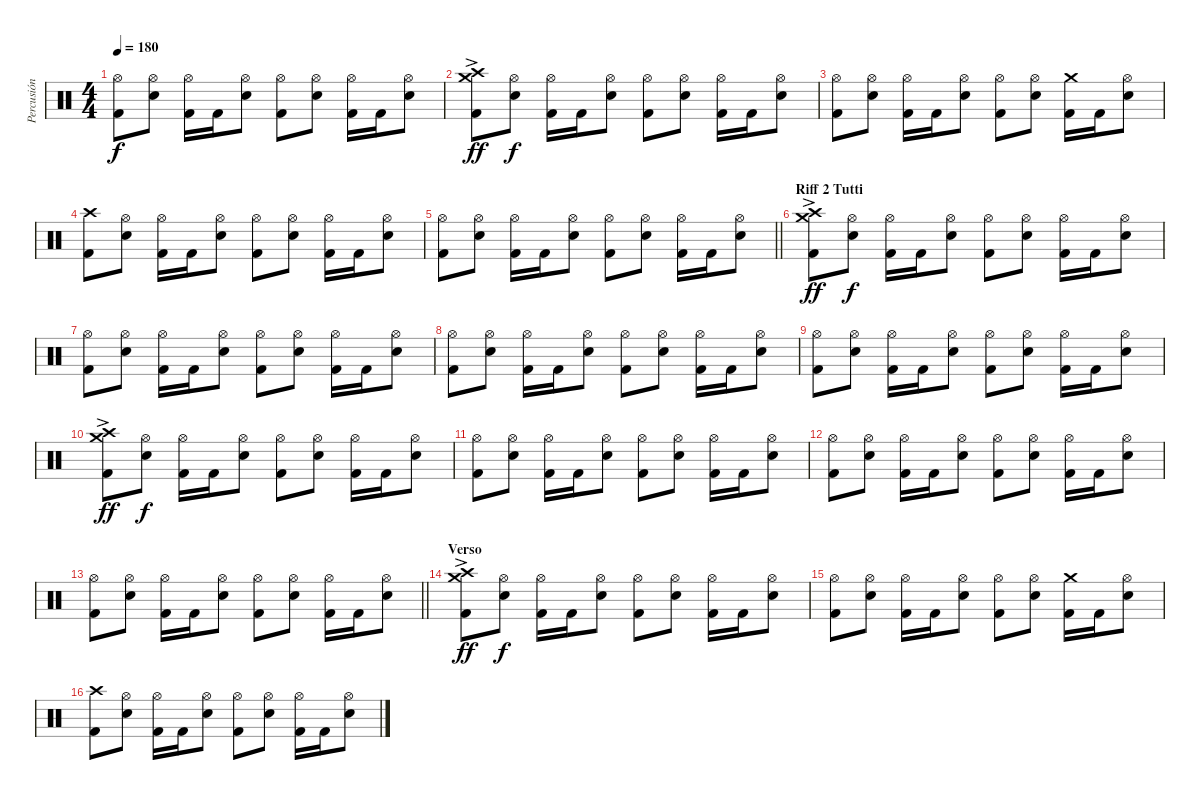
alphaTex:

\track ("Percusión" "Percusión") {instrument percussion}
\staff {score}
\articulation defaults
\ts (4 4)
\tempo 180
\clef neutral
\ks c
("Hi-Hat (open)" "Kick (hit) 2").8{dy f} ("Hi-Hat (open)" "Snare (hit) 2").8 ("Hi-Hat (open)" "Kick (hit) 2").16 "Kick (hit) 2".16 ("Hi-Hat (open)" "Snare (hit) 2").8 ("Hi-Hat (open)" "Kick (hit) 2").8 ("Hi-Hat (open)" "Snare (hit) 2").8 ("Hi-Hat (open)" "Kick (hit) 2").16 "Kick (hit) 2".16 ("Hi-Hat (open)" "Snare (hit) 2").8 |
("Crash medium (hit)"{ac} "Crash high (hit)" "Kick (hit) 2").8{dy ff} ("Hi-Hat (open)" "Snare (hit) 2").8{dy f} ("Hi-Hat (open)" "Kick (hit) 2").16 "Kick (hit) 2".16 ("Hi-Hat (open)" "Snare (hit) 2").8 ("Hi-Hat (open)" "Kick (hit) 2").8 ("Hi-Hat (open)" "Snare (hit) 2").8 ("Hi-Hat (open)" "Kick (hit) 2").16 "Kick (hit) 2".16 ("Hi-Hat (open)" "Snare (hit) 2").8 |
("Hi-Hat (open)" "Kick (hit) 2").8 ("Hi-Hat (open)" "Snare (hit) 2").8 ("Hi-Hat (open)" "Kick (hit) 2").16 "Kick (hit) 2".16 ("Hi-Hat (open)" "Snare (hit) 2").8 ("Hi-Hat (open)" "Kick (hit) 2").8 ("Hi-Hat (open)" "Snare (hit) 2").8 ("Crash medium (hit)" "Kick (hit) 2").16 "Kick (hit) 2".16 ("Hi-Hat (open)" "Snare (hit) 2").8 |
("Crash high (hit)" "Kick (hit) 2").8 ("Hi-Hat (open)" "Snare (hit) 2").8 ("Hi-Hat (open)" "Kick (hit) 2").16 "Kick (hit) 2".16 ("Hi-Hat (open)" "Snare (hit) 2").8 ("Hi-Hat (open)" "Kick (hit) 2").8 ("Hi-Hat (open)" "Snare (hit) 2").8 ("Hi-Hat (open)" "Kick (hit) 2").16 "Kick (hit) 2".16 ("Hi-Hat (open)" "Snare (hit) 2").8 |
\barLineRight lightlight
("Hi-Hat (open)" "Kick (hit) 2").8 ("Hi-Hat (open)" "Snare (hit) 2").8 ("Hi-Hat (open)" "Kick (hit) 2").16 "Kick (hit) 2".16 ("Hi-Hat (open)" "Snare (hit) 2").8 ("Hi-Hat (open)" "Kick (hit) 2").8 ("Hi-Hat (open)" "Snare (hit) 2").8 ("Hi-Hat (open)" "Kick (hit) 2").16 "Kick (hit) 2".16 ("Hi-Hat (open)" "Snare (hit) 2").8 |
\section ("" "Riff 2 Tutti")
("Crash medium (hit)"{ac} "Crash high (hit)" "Kick (hit) 2").8{dy ff} ("Hi-Hat (open)" "Snare (hit) 2").8{dy f} ("Hi-Hat (open)" "Kick (hit) 2").16 "Kick (hit) 2".16 ("Hi-Hat (open)" "Snare (hit) 2").8 ("Hi-Hat (open)" "Kick (hit) 2").8 ("Hi-Hat (open)" "Snare (hit) 2").8 ("Hi-Hat (open)" "Kick (hit) 2").16 "Kick (hit) 2".16 ("Hi-Hat (open)" "Snare (hit) 2").8 |
("Hi-Hat (open)" "Kick (hit) 2").8 ("Hi-Hat (open)" "Snare (hit) 2").8 ("Hi-Hat (open)" "Kick (hit) 2").16 "Kick (hit) 2".16 ("Hi-Hat (open)" "Snare (hit) 2").8 ("Hi-Hat (open)" "Kick (hit) 2").8 ("Hi-Hat (open)" "Snare (hit) 2").8 ("Hi-Hat (open)" "Kick (hit) 2").16 "Kick (hit) 2".16 ("Hi-Hat (open)" "Snare (hit) 2").8 |
("Hi-Hat (open)" "Kick (hit) 2").8 ("Hi-Hat (open)" "Snare (hit) 2").8 ("Hi-Hat (open)" "Kick (hit) 2").16 "Kick (hit) 2".16 ("Hi-Hat (open)" "Snare (hit) 2").8 ("Hi-Hat (open)" "Kick (hit) 2").8 ("Hi-Hat (open)" "Snare (hit) 2").8 ("Hi-Hat (open)" "Kick (hit) 2").16 "Kick (hit) 2".16 ("Hi-Hat (open)" "Snare (hit) 2").8 |
("Hi-Hat (open)" "Kick (hit) 2").8 ("Hi-Hat (open)" "Snare (hit) 2").8 ("Hi-Hat (open)" "Kick (hit) 2").16 "Kick (hit) 2".16 ("Hi-Hat (open)" "Snare (hit) 2").8 ("Hi-Hat (open)" "Kick (hit) 2").8 ("Hi-Hat (open)" "Snare (hit) 2").8 ("Hi-Hat (open)" "Kick (hit) 2").16 "Kick (hit) 2".16 ("Hi-Hat (open)" "Snare (hit) 2").8 |
("Crash medium (hit)"{ac} "Crash high (hit)" "Kick (hit) 2").8{dy ff} ("Hi-Hat (open)" "Snare (hit) 2").8{dy f} ("Hi-Hat (open)" "Kick (hit) 2").16 "Kick (hit) 2".16 ("Hi-Hat (open)" "Snare (hit) 2").8 ("Hi-Hat (open)" "Kick (hit) 2").8 ("Hi-Hat (open)" "Snare (hit) 2").8 ("Hi-Hat (open)" "Kick (hit) 2").16 "Kick (hit) 2".16 ("Hi-Hat (open)" "Snare (hit) 2").8 |
("Hi-Hat (open)" "Kick (hit) 2").8 ("Hi-Hat (open)" "Snare (hit) 2").8 ("Hi-Hat (open)" "Kick (hit) 2").16 "Kick (hit) 2".16 ("Hi-Hat (open)" "Snare (hit) 2").8 ("Hi-Hat (open)" "Kick (hit) 2").8 ("Hi-Hat (open)" "Snare (hit) 2").8 ("Hi-Hat (open)" "Kick (hit) 2").16 "Kick (hit) 2".16 ("Hi-Hat (open)" "Snare (hit) 2").8 |
("Hi-Hat (open)" "Kick (hit) 2").8 ("Hi-Hat (open)" "Snare (hit) 2").8 ("Hi-Hat (open)" "Kick (hit) 2").16 "Kick (hit) 2".16 ("Hi-Hat (open)" "Snare (hit) 2").8 ("Hi-Hat (open)" "Kick (hit) 2").8 ("Hi-Hat (open)" "Snare (hit) 2").8 ("Hi-Hat (open)" "Kick (hit) 2").16 "Kick (hit) 2".16 ("Hi-Hat (open)" "Snare (hit) 2").8 |
\barLineRight lightlight
("Hi-Hat (open)" "Kick (hit) 2").8 ("Hi-Hat (open)" "Snare (hit) 2").8 ("Hi-Hat (open)" "Kick (hit) 2").16 "Kick (hit) 2".16 ("Hi-Hat (open)" "Snare (hit) 2").8 ("Hi-Hat (open)" "Kick (hit) 2").8 ("Hi-Hat (open)" "Snare (hit) 2").8 ("Hi-Hat (open)" "Kick (hit) 2").16 "Kick (hit) 2".16 ("Hi-Hat (open)" "Snare (hit) 2").8 |
\section ("" "Verso")
("Crash medium (hit)"{ac} "Crash high (hit)" "Kick (hit) 2").8{dy ff} ("Hi-Hat (open)" "Snare (hit) 2").8{dy f} ("Hi-Hat (open)" "Kick (hit) 2").16 "Kick (hit) 2".16 ("Hi-Hat (open)" "Snare (hit) 2").8 ("Hi-Hat (open)" "Kick (hit) 2").8 ("Hi-Hat (open)" "Snare (hit) 2").8 ("Hi-Hat (open)" "Kick (hit) 2").16 "Kick (hit) 2".16 ("Hi-Hat (open)" "Snare (hit) 2").8 |
("Hi-Hat (open)" "Kick (hit) 2").8 ("Hi-Hat (open)" "Snare (hit) 2").8 ("Hi-Hat (open)" "Kick (hit) 2").16 "Kick (hit) 2".16 ("Hi-Hat (open)" "Snare (hit) 2").8 ("Hi-Hat (open)" "Kick (hit) 2").8 ("Hi-Hat (open)" "Snare (hit) 2").8 ("Crash medium (hit)" "Kick (hit) 2").16 "Kick (hit) 2".16 ("Hi-Hat (open)" "Snare (hit) 2").8 |
("Crash high (hit)" "Kick (hit) 2").8 ("Hi-Hat (open)" "Snare (hit) 2").8 ("Hi-Hat (open)" "Kick (hit) 2").16 "Kick (hit) 2".16 ("Hi-Hat (open)" "Snare (hit) 2").8 ("Hi-Hat (open)" "Kick (hit) 2").8 ("Hi-Hat (open)" "Snare (hit) 2").8 ("Hi-Hat (open)" "Kick (hit) 2").16 "Kick (hit) 2".16 ("Hi-Hat (open)" "Snare (hit) 2").8
